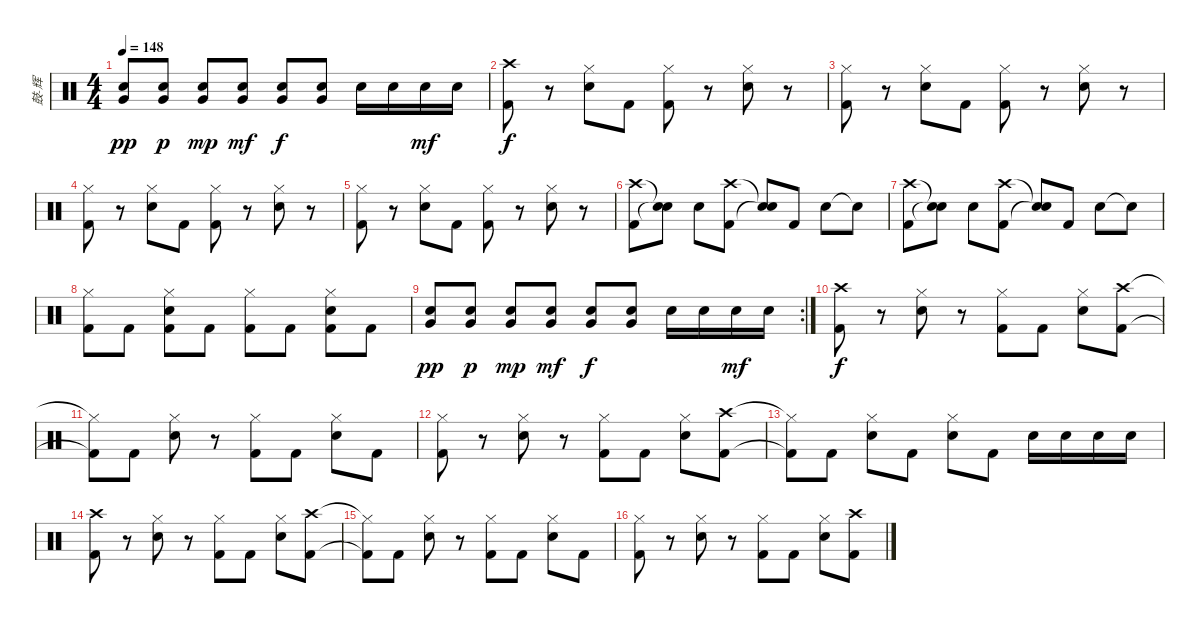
\track ("鼓-辉" "鼓-辉") {instrument percussion}
\staff {score}
\articulation defaults
\ts (4 4)
\tempo 148
\clef neutral
\ks c
("Very Low Tom (hit)" "Snare (hit) 2").8{dy pp} ("Very Low Tom (hit)" "Snare (hit) 2").8{dy p} ("Very Low Tom (hit)" "Snare (hit) 2").8{dy mp} ("Very Low Tom (hit)" "Snare (hit) 2").8{dy mf} ("Very Low Tom (hit)" "Snare (hit) 2").8{dy f} ("Very Low Tom (hit)" "Snare (hit) 2").8 "Snare (hit) 2".16 "Snare (hit) 2".16 "Snare (hit) 2".16{dy mf} "Snare (hit) 2".16 |
("Crash high (hit)" "Kick (hit) 2").8{dy f} r.8 ("Hi-Hat (closed)" "Snare (hit) 2").8 "Kick (hit) 2".8 ("Hi-Hat (closed)" "Kick (hit) 2").8 r.8 ("Hi-Hat (closed)" "Snare (hit) 2").8 r.8 |
("Hi-Hat (closed)" "Kick (hit) 2").8 r.8 ("Hi-Hat (closed)" "Snare (hit) 2").8 "Kick (hit) 2".8 ("Hi-Hat (closed)" "Kick (hit) 2").8 r.8 ("Hi-Hat (closed)" "Snare (hit) 2").8 r.8 |
("Hi-Hat (closed)" "Kick (hit) 2").8 r.8 ("Hi-Hat (closed)" "Snare (hit) 2").8 "Kick (hit) 2".8 ("Hi-Hat (closed)" "Kick (hit) 2").8 r.8 ("Hi-Hat (closed)" "Snare (hit) 2").8 r.8 |
("Hi-Hat (closed)" "Kick (hit) 2").8 r.8 ("Hi-Hat (closed)" "Snare (hit) 2").8 "Kick (hit) 2".8 ("Hi-Hat (closed)" "Kick (hit) 2").8 r.8 ("Hi-Hat (closed)" "Snare (hit) 2").8 r.8 |
("Crash high (hit)" "Kick (hit) 2").8 ("Snare (hit)"{t} "Snare (hit)"{t}).8 "Snare (hit) 2".8 ("Crash high (hit)" "Kick (hit) 2").8 ("Snare (hit)"{t} "Snare (hit)"{t}).8 "Kick (hit) 2".8 "Snare (hit) 2".8 "Snare (hit)"{t}.8 |
("Crash high (hit)" "Kick (hit) 2").8 ("Snare (hit)"{t} "Snare (hit)"{t}).8 "Snare (hit) 2".8 ("Crash high (hit)" "Kick (hit) 2").8 ("Snare (hit)"{t} "Snare (hit)"{t}).8 "Kick (hit) 2".8 "Snare (hit) 2".8 "Snare (hit)"{t}.8 |
("Hi-Hat (closed)" "Kick (hit) 2").8 "Kick (hit) 2".8 ("Hi-Hat (closed)" "Snare (hit) 2" "Kick (hit) 2").8 "Kick (hit) 2".8 ("Hi-Hat (closed)" "Kick (hit) 2").8 "Kick (hit) 2".8 ("Hi-Hat (closed)" "Snare (hit) 2" "Kick (hit) 2").8 "Kick (hit) 2".8 |
\rc 2
("Very Low Tom (hit)" "Snare (hit) 2").8{dy pp} ("Very Low Tom (hit)" "Snare (hit) 2").8{dy p} ("Very Low Tom (hit)" "Snare (hit) 2").8{dy mp} ("Very Low Tom (hit)" "Snare (hit) 2").8{dy mf} ("Very Low Tom (hit)" "Snare (hit) 2").8{dy f} ("Very Low Tom (hit)" "Snare (hit) 2").8 "Snare (hit) 2".16 "Snare (hit) 2".16 "Snare (hit) 2".16{dy mf} "Snare (hit) 2".16 |
("Crash high (hit)" "Kick (hit) 2").8{dy f} r.8 ("Hi-Hat (closed)" "Snare (hit) 2").8 r.8 ("Hi-Hat (closed)" "Kick (hit) 2").8 "Kick (hit) 2".8 ("Hi-Hat (closed)" "Snare (hit) 2").8 ("Crash high (hit)" "Kick (hit) 2").8 |
("Hi-Hat (closed)"{t} "Kick (hit) 2"{t}).8 "Kick (hit) 2".8 ("Hi-Hat (closed)" "Snare (hit) 2").8 r.8 ("Hi-Hat (closed)" "Kick (hit) 2").8 "Kick (hit) 2".8 ("Hi-Hat (closed)" "Snare (hit) 2").8 "Kick (hit) 2".8 |
("Hi-Hat (closed)" "Kick (hit) 2").8 r.8 ("Hi-Hat (closed)" "Snare (hit) 2").8 r.8 ("Hi-Hat (closed)" "Kick (hit) 2").8 "Kick (hit) 2".8 ("Hi-Hat (closed)" "Snare (hit) 2").8 ("Crash high (hit)" "Kick (hit) 2").8 |
("Hi-Hat (closed)"{t} "Kick (hit) 2"{t}).8 "Kick (hit) 2".8 ("Hi-Hat (closed)" "Snare (hit) 2").8 "Kick (hit) 2".8 ("Hi-Hat (closed)" "Snare (hit) 2").8 "Kick (hit) 2".8 "Snare (hit) 2".16 "Snare (hit) 2".16 "Snare (hit) 2".16 "Snare (hit) 2".16 |
("Crash high (hit)" "Kick (hit) 2").8 r.8 ("Hi-Hat (closed)" "Snare (hit) 2").8 r.8 ("Hi-Hat (closed)" "Kick (hit) 2").8 "Kick (hit) 2".8 ("Hi-Hat (closed)" "Snare (hit) 2").8 ("Crash high (hit)" "Kick (hit) 2").8 |
("Hi-Hat (closed)"{t} "Kick (hit) 2"{t}).8 "Kick (hit) 2".8 ("Hi-Hat (closed)" "Snare (hit) 2").8 r.8 ("Hi-Hat (closed)" "Kick (hit) 2").8 "Kick (hit) 2".8 ("Hi-Hat (closed)" "Snare (hit) 2").8 "Kick (hit) 2".8 |
("Hi-Hat (closed)" "Kick (hit) 2").8 r.8 ("Hi-Hat (closed)" "Snare (hit) 2").8 r.8 ("Hi-Hat (closed)" "Kick (hit) 2").8 "Kick (hit) 2".8 ("Hi-Hat (closed)" "Snare (hit) 2").8 ("Crash high (hit)" "Kick (hit) 2").8
